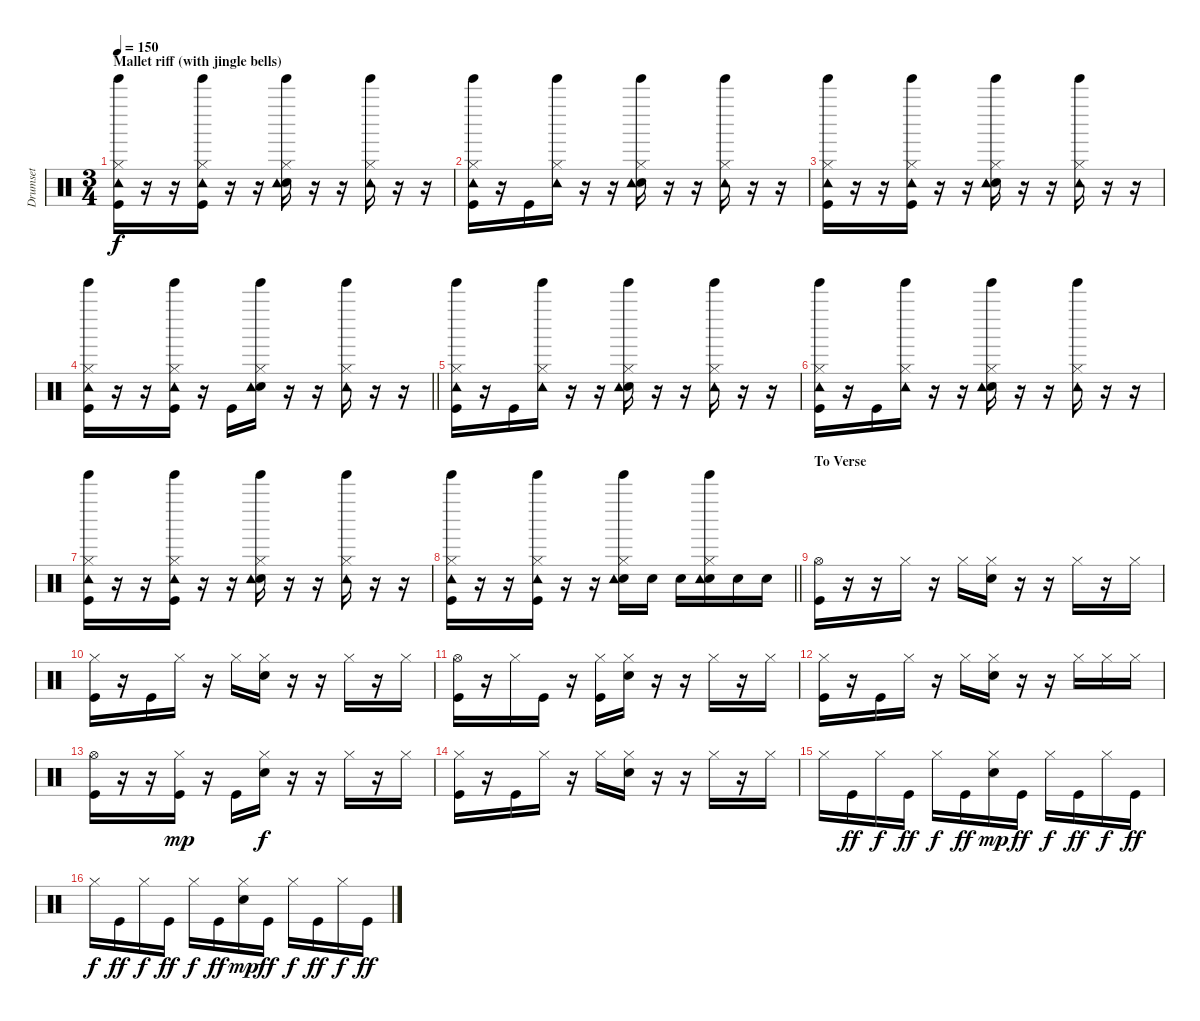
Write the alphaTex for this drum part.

\track ("Drumset" "Drumset") {instrument percussion}
\staff {score}
\articulation defaults
\ts (3 4)
\section ("" "Mallet riff (with jingle bells)")
\tempo 150
\clef neutral
\ks c
("Tinkle Bell (hit)" "Hi-Hat (closed)" "Tambourine (hit)" "Kick (hit)").16{dy f} r.16 r.16 ("Tinkle Bell (hit)" "Hi-Hat (closed)" "Tambourine (hit)" "Kick (hit)").16 r.16 r.16 ("Tinkle Bell (hit)" "Hi-Hat (closed)" "Snare (hit) 2" "Tambourine (hit)").16 r.16 r.16 ("Tinkle Bell (hit)" "Hi-Hat (closed)" "Tambourine (hit)").16 r.16 r.16 |
("Tinkle Bell (hit)" "Hi-Hat (closed)" "Tambourine (hit)" "Kick (hit)").16 r.16 "Kick (hit)".16 ("Tinkle Bell (hit)" "Hi-Hat (closed)" "Tambourine (hit)").16 r.16 r.16 ("Tinkle Bell (hit)" "Hi-Hat (closed)" "Snare (hit) 2" "Tambourine (hit)").16 r.16 r.16 ("Tinkle Bell (hit)" "Hi-Hat (closed)" "Tambourine (hit)").16 r.16 r.16 |
("Tinkle Bell (hit)" "Hi-Hat (closed)" "Tambourine (hit)" "Kick (hit)").16 r.16 r.16 ("Tinkle Bell (hit)" "Hi-Hat (closed)" "Tambourine (hit)" "Kick (hit)").16 r.16 r.16 ("Tinkle Bell (hit)" "Hi-Hat (closed)" "Snare (hit) 2" "Tambourine (hit)").16 r.16 r.16 ("Tinkle Bell (hit)" "Hi-Hat (closed)" "Tambourine (hit)").16 r.16 r.16 |
\barLineRight lightlight
("Tinkle Bell (hit)" "Hi-Hat (closed)" "Tambourine (hit)" "Kick (hit)").16 r.16 r.16 ("Tinkle Bell (hit)" "Hi-Hat (closed)" "Tambourine (hit)" "Kick (hit)").16 r.16 "Kick (hit)".16 ("Tinkle Bell (hit)" "Hi-Hat (closed)" "Snare (hit) 2" "Tambourine (hit)").16 r.16 r.16 ("Tinkle Bell (hit)" "Hi-Hat (closed)" "Tambourine (hit)").16 r.16 r.16 |
("Tinkle Bell (hit)" "Hi-Hat (closed)" "Tambourine (hit)" "Kick (hit)").16 r.16 "Kick (hit)".16 ("Tinkle Bell (hit)" "Hi-Hat (closed)" "Tambourine (hit)").16 r.16 r.16 ("Tinkle Bell (hit)" "Hi-Hat (closed)" "Snare (hit) 2" "Tambourine (hit)").16 r.16 r.16 ("Tinkle Bell (hit)" "Hi-Hat (closed)" "Tambourine (hit)").16 r.16 r.16 |
("Tinkle Bell (hit)" "Hi-Hat (closed)" "Tambourine (hit)" "Kick (hit)").16 r.16 "Kick (hit)".16 ("Tinkle Bell (hit)" "Hi-Hat (closed)" "Tambourine (hit)").16 r.16 r.16 ("Tinkle Bell (hit)" "Hi-Hat (closed)" "Snare (hit) 2" "Tambourine (hit)").16 r.16 r.16 ("Tinkle Bell (hit)" "Hi-Hat (closed)" "Tambourine (hit)").16 r.16 r.16 |
("Tinkle Bell (hit)" "Hi-Hat (closed)" "Tambourine (hit)" "Kick (hit)").16 r.16 r.16 ("Tinkle Bell (hit)" "Hi-Hat (closed)" "Tambourine (hit)" "Kick (hit)").16 r.16 r.16 ("Tinkle Bell (hit)" "Hi-Hat (closed)" "Snare (hit) 2" "Tambourine (hit)").16 r.16 r.16 ("Tinkle Bell (hit)" "Hi-Hat (closed)" "Tambourine (hit)").16 r.16 r.16 |
\barLineRight lightlight
("Tinkle Bell (hit)" "Hi-Hat (closed)" "Tambourine (hit)" "Kick (hit)").16 r.16 r.16 ("Tinkle Bell (hit)" "Hi-Hat (closed)" "Tambourine (hit)" "Kick (hit)").16 r.16 r.16 ("Tinkle Bell (hit)" "Hi-Hat (closed)" "Snare (hit) 2" "Tambourine (hit)").16 "Snare (hit) 2".16 "Snare (hit) 2".16 ("Tinkle Bell (hit)" "Hi-Hat (closed)" "Snare (hit) 2" "Tambourine (hit)").16 "Snare (hit) 2".16 "Snare (hit) 2".16 |
\section ("" "To Verse")
("Hi-Hat (open)" "Kick (hit)").16 r.16 r.16 "Hi-Hat (closed)".16 r.16 "Hi-Hat (closed)".16 ("Hi-Hat (closed)" "Snare (hit) 2").16 r.16 r.16 "Hi-Hat (closed)".16 r.16 "Hi-Hat (closed)".16 |
("Hi-Hat (closed)" "Kick (hit)").16 r.16 "Kick (hit)".16 "Hi-Hat (closed)".16 r.16 "Hi-Hat (closed)".16 ("Hi-Hat (closed)" "Snare (hit) 2").16 r.16 r.16 "Hi-Hat (closed)".16 r.16 "Hi-Hat (closed)".16 |
("Hi-Hat (open)" "Kick (hit)").16 r.16 "Hi-Hat (closed)".16 "Kick (hit)".16 r.16 ("Hi-Hat (closed)" "Kick (hit)").16 ("Hi-Hat (closed)" "Snare (hit) 2").16 r.16 r.16 "Hi-Hat (closed)".16 r.16 "Hi-Hat (closed)".16 |
("Hi-Hat (closed)" "Kick (hit)").16 r.16 "Kick (hit)".16 "Hi-Hat (closed)".16 r.16 "Hi-Hat (closed)".16 ("Hi-Hat (closed)" "Snare (hit) 2").16 r.16 r.16 "Hi-Hat (closed)".16 "Hi-Hat (closed)".16 "Hi-Hat (closed)".16 |
("Hi-Hat (open)" "Kick (hit)").16 r.16 r.16 ("Hi-Hat (closed)" "Kick (hit)").16{dy mp} r.16 "Kick (hit)".16 ("Hi-Hat (closed)" "Snare (hit) 2").16{dy f} r.16 r.16 "Hi-Hat (closed)".16 r.16 "Hi-Hat (closed)".16 |
("Hi-Hat (closed)" "Kick (hit)").16 r.16 "Kick (hit)".16 "Hi-Hat (closed)".16 r.16 "Hi-Hat (closed)".16 ("Hi-Hat (closed)" "Snare (hit) 2").16 r.16 r.16 "Hi-Hat (closed)".16 r.16 "Hi-Hat (closed)".16 |
"Hi-Hat (closed)".16 "Kick (hit)".16{dy ff} "Hi-Hat (closed)".16{dy f} "Kick (hit)".16{dy ff} "Hi-Hat (closed)".16{dy f} "Kick (hit)".16{dy ff} ("Hi-Hat (closed)" "Snare (hit) 2").16{dy mp} "Kick (hit)".16{dy ff} "Hi-Hat (closed)".16{dy f} "Kick (hit)".16{dy ff} "Hi-Hat (closed)".16{dy f} "Kick (hit)".16{dy ff} |
"Hi-Hat (closed)".16{dy f} "Kick (hit)".16{dy ff} "Hi-Hat (closed)".16{dy f} "Kick (hit)".16{dy ff} "Hi-Hat (closed)".16{dy f} "Kick (hit)".16{dy ff} ("Hi-Hat (closed)" "Snare (hit) 2").16{dy mp} "Kick (hit)".16{dy ff} "Hi-Hat (closed)".16{dy f} "Kick (hit)".16{dy ff} "Hi-Hat (closed)".16{dy f} "Kick (hit)".16{dy ff}
